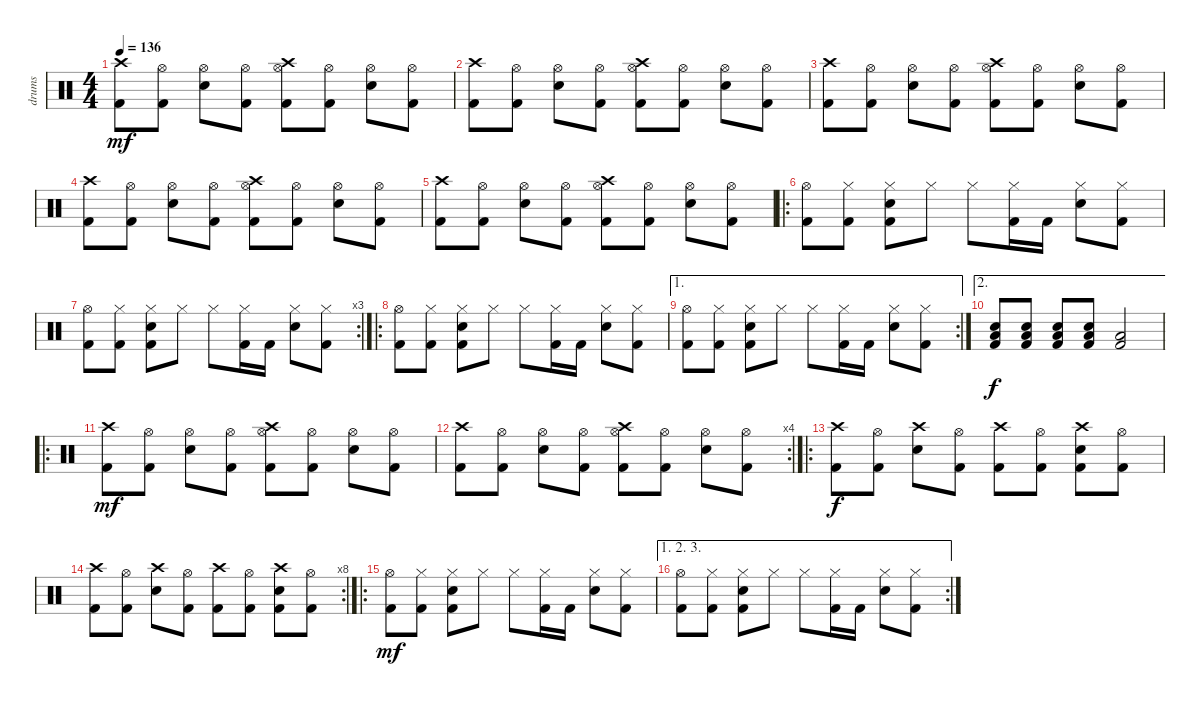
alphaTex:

\track ("drums" "drums") {instrument percussion}
\staff {score}
\articulation defaults
\ts (4 4)
\tempo 136
\clef neutral
\ks c
("Crash high (hit)" "Kick (hit) 2").8{dy mf} ("Hi-Hat (open)" "Kick (hit) 2").8 ("Hi-Hat (open)" "Electric Snare (hit)").8 ("Hi-Hat (open)" "Kick (hit) 2").8 ("Crash high (hit)" "Hi-Hat (open)" "Kick (hit) 2").8 ("Hi-Hat (open)" "Kick (hit) 2").8 ("Hi-Hat (open)" "Electric Snare (hit)").8 ("Hi-Hat (open)" "Kick (hit) 2").8 |
("Crash high (hit)" "Kick (hit) 2").8 ("Hi-Hat (open)" "Kick (hit) 2").8 ("Hi-Hat (open)" "Electric Snare (hit)").8 ("Hi-Hat (open)" "Kick (hit) 2").8 ("Crash high (hit)" "Hi-Hat (open)" "Kick (hit) 2").8 ("Hi-Hat (open)" "Kick (hit) 2").8 ("Hi-Hat (open)" "Electric Snare (hit)").8 ("Hi-Hat (open)" "Kick (hit) 2").8 |
("Crash high (hit)" "Kick (hit) 2").8 ("Hi-Hat (open)" "Kick (hit) 2").8 ("Hi-Hat (open)" "Electric Snare (hit)").8 ("Hi-Hat (open)" "Kick (hit) 2").8 ("Crash high (hit)" "Hi-Hat (open)" "Kick (hit) 2").8 ("Hi-Hat (open)" "Kick (hit) 2").8 ("Hi-Hat (open)" "Electric Snare (hit)").8 ("Hi-Hat (open)" "Kick (hit) 2").8 |
("Crash high (hit)" "Kick (hit) 2").8 ("Hi-Hat (open)" "Kick (hit) 2").8 ("Hi-Hat (open)" "Electric Snare (hit)").8 ("Hi-Hat (open)" "Kick (hit) 2").8 ("Crash high (hit)" "Hi-Hat (open)" "Kick (hit) 2").8 ("Hi-Hat (open)" "Kick (hit) 2").8 ("Hi-Hat (open)" "Electric Snare (hit)").8 ("Hi-Hat (open)" "Kick (hit) 2").8 |
("Crash high (hit)" "Kick (hit) 2").8 ("Hi-Hat (open)" "Kick (hit) 2").8 ("Hi-Hat (open)" "Electric Snare (hit)").8 ("Hi-Hat (open)" "Kick (hit) 2").8 ("Crash high (hit)" "Hi-Hat (open)" "Kick (hit) 2").8 ("Hi-Hat (open)" "Kick (hit) 2").8 ("Hi-Hat (open)" "Electric Snare (hit)").8 ("Hi-Hat (open)" "Kick (hit) 2").8 |
\ro
("Hi-Hat (open)" "Kick (hit) 2").8 ("Hi-Hat (closed)" "Kick (hit) 2").8 ("Hi-Hat (closed)" "Electric Snare (hit)" "Kick (hit) 2").8 "Hi-Hat (closed)".8 "Hi-Hat (closed)".8 ("Hi-Hat (closed)" "Kick (hit) 2").16 "Kick (hit) 2".16 ("Hi-Hat (closed)" "Electric Snare (hit)").8 ("Hi-Hat (closed)" "Kick (hit) 2").8 |
\rc 3
("Hi-Hat (open)" "Kick (hit) 2").8 ("Hi-Hat (closed)" "Kick (hit) 2").8 ("Hi-Hat (closed)" "Electric Snare (hit)" "Kick (hit) 2").8 "Hi-Hat (closed)".8 "Hi-Hat (closed)".8 ("Hi-Hat (closed)" "Kick (hit) 2").16 "Kick (hit) 2".16 ("Hi-Hat (closed)" "Electric Snare (hit)").8 ("Hi-Hat (closed)" "Kick (hit) 2").8 |
\ro
("Hi-Hat (open)" "Kick (hit) 2").8 ("Hi-Hat (closed)" "Kick (hit) 2").8 ("Hi-Hat (closed)" "Electric Snare (hit)" "Kick (hit) 2").8 "Hi-Hat (closed)".8 "Hi-Hat (closed)".8 ("Hi-Hat (closed)" "Kick (hit) 2").16 "Kick (hit) 2".16 ("Hi-Hat (closed)" "Electric Snare (hit)").8 ("Hi-Hat (closed)" "Kick (hit) 2").8 |
\ae 1
\rc 2
("Hi-Hat (open)" "Kick (hit) 2").8 ("Hi-Hat (closed)" "Kick (hit) 2").8 ("Hi-Hat (closed)" "Electric Snare (hit)" "Kick (hit) 2").8 "Hi-Hat (closed)".8 "Hi-Hat (closed)".8 ("Hi-Hat (closed)" "Kick (hit) 2").16 "Kick (hit) 2".16 ("Hi-Hat (closed)" "Electric Snare (hit)").8 ("Hi-Hat (closed)" "Kick (hit) 2").8 |
\ae 2
("Low Floor Tom (hit)" "Electric Snare (hit)" "Kick (hit) 2").8{dy f} ("Low Floor Tom (hit)" "Electric Snare (hit)" "Kick (hit) 2").8 ("Low Floor Tom (hit)" "Electric Snare (hit)" "Kick (hit) 2").8 ("Low Floor Tom (hit)" "Electric Snare (hit)" "Kick (hit) 2").8 ("Low Floor Tom (hit)" "Kick (hit) 2").2 |
\ro
("Crash high (hit)" "Kick (hit) 2").8{dy mf} ("Hi-Hat (open)" "Kick (hit) 2").8 ("Hi-Hat (open)" "Electric Snare (hit)").8 ("Hi-Hat (open)" "Kick (hit) 2").8 ("Crash high (hit)" "Hi-Hat (open)" "Kick (hit) 2").8 ("Hi-Hat (open)" "Kick (hit) 2").8 ("Hi-Hat (open)" "Electric Snare (hit)").8 ("Hi-Hat (open)" "Kick (hit) 2").8 |
\rc 4
("Crash high (hit)" "Kick (hit) 2").8 ("Hi-Hat (open)" "Kick (hit) 2").8 ("Hi-Hat (open)" "Electric Snare (hit)").8 ("Hi-Hat (open)" "Kick (hit) 2").8 ("Crash high (hit)" "Hi-Hat (open)" "Kick (hit) 2").8 ("Hi-Hat (open)" "Kick (hit) 2").8 ("Hi-Hat (open)" "Electric Snare (hit)").8 ("Hi-Hat (open)" "Kick (hit) 2").8 |
\ro
("Crash high (hit)" "Kick (hit) 2").8{dy f} ("Hi-Hat (open)" "Kick (hit) 2").8 ("Crash high (hit)" "Electric Snare (hit)").8 ("Hi-Hat (open)" "Kick (hit) 2").8 ("Crash high (hit)" "Kick (hit) 2").8 ("Hi-Hat (open)" "Kick (hit) 2").8 ("Crash high (hit)" "Electric Snare (hit)" "Kick (hit) 2").8 ("Hi-Hat (open)" "Kick (hit) 2").8 |
\rc 8
("Crash high (hit)" "Kick (hit) 2").8 ("Hi-Hat (open)" "Kick (hit) 2").8 ("Crash high (hit)" "Electric Snare (hit)").8 ("Hi-Hat (open)" "Kick (hit) 2").8 ("Crash high (hit)" "Kick (hit) 2").8 ("Hi-Hat (open)" "Kick (hit) 2").8 ("Crash high (hit)" "Electric Snare (hit)" "Kick (hit) 2").8 ("Hi-Hat (open)" "Kick (hit) 2").8 |
\ro
("Hi-Hat (open)" "Kick (hit) 2").8{dy mf} ("Hi-Hat (closed)" "Kick (hit) 2").8 ("Hi-Hat (closed)" "Electric Snare (hit)" "Kick (hit) 2").8 "Hi-Hat (closed)".8 "Hi-Hat (closed)".8 ("Hi-Hat (closed)" "Kick (hit) 2").16 "Kick (hit) 2".16 ("Hi-Hat (closed)" "Electric Snare (hit)").8 ("Hi-Hat (closed)" "Kick (hit) 2").8 |
\ae (1 2 3)
\rc 2
("Hi-Hat (open)" "Kick (hit) 2").8 ("Hi-Hat (closed)" "Kick (hit) 2").8 ("Hi-Hat (closed)" "Electric Snare (hit)" "Kick (hit) 2").8 "Hi-Hat (closed)".8 "Hi-Hat (closed)".8 ("Hi-Hat (closed)" "Kick (hit) 2").16 "Kick (hit) 2".16 ("Hi-Hat (closed)" "Electric Snare (hit)").8 ("Hi-Hat (closed)" "Kick (hit) 2").8
